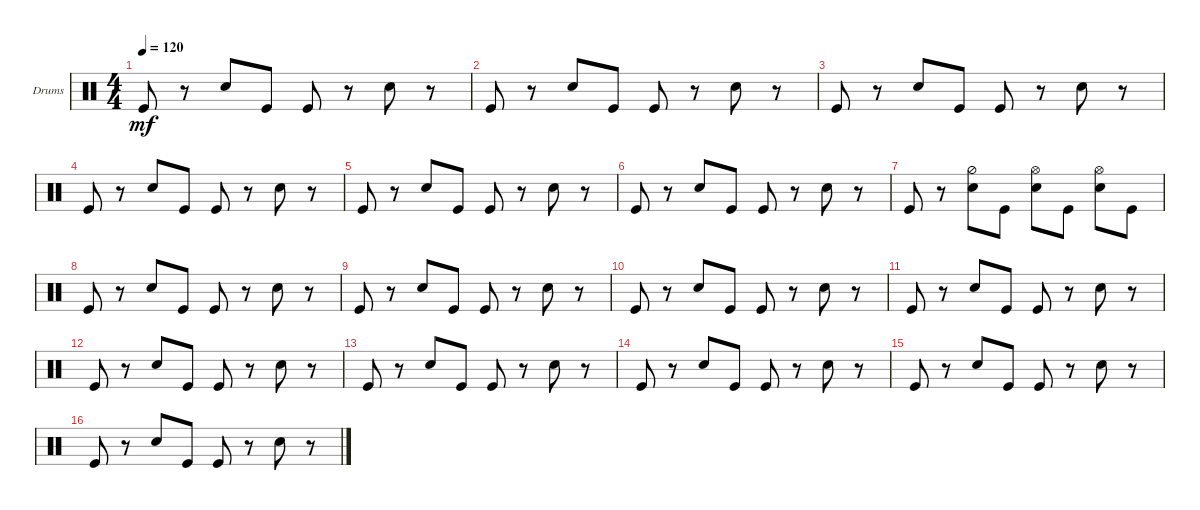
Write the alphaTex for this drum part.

\defaultSystemsLayout 4
\bracketExtendMode groupsimilarinstruments
\firstSystemTrackNameOrientation horizontal
\otherSystemsTrackNameOrientation horizontal
\track ("Drumkit" "Drums") {instrument percussion}
\staff {score}
\articulation defaults
\ts (4 4)
\tempo 120
\clef neutral
\ks c "Kick (hit)".8{dy mf}
r.8 "Snare (hit) 2".8 "Kick (hit)".8 "Kick (hit)".8 r.8 "Snare (hit) 2".8 r.8 |
"Kick (hit)".8 r.8 "Snare (hit) 2".8 "Kick (hit)".8 "Kick (hit)".8 r.8 "Snare (hit) 2".8 r.8 |
"Kick (hit)".8 r.8 "Snare (hit) 2".8 "Kick (hit)".8 "Kick (hit)".8 r.8 "Snare (hit) 2".8 r.8 |
"Kick (hit)".8 r.8 "Snare (hit) 2".8 "Kick (hit)".8 "Kick (hit)".8 r.8 "Snare (hit) 2".8 r.8 |
"Kick (hit)".8 r.8 "Snare (hit) 2".8 "Kick (hit)".8 "Kick (hit)".8 r.8 "Snare (hit) 2".8 r.8 |
"Kick (hit)".8 r.8 "Snare (hit) 2".8 "Kick (hit)".8 "Kick (hit)".8 r.8 "Snare (hit) 2".8 r.8 |
"Kick (hit)".8 r.8 ("Snare (hit) 2" "Hi-Hat (half)").8 "Kick (hit)".8 ("Snare (hit) 2" "Hi-Hat (open)").8 "Kick (hit)".8 ("Snare (hit) 2" "Hi-Hat (open)").8 "Kick (hit)".8 |
"Kick (hit)".8 r.8 "Snare (hit) 2".8 "Kick (hit)".8 "Kick (hit)".8 r.8 "Snare (hit) 2".8 r.8 |
"Kick (hit)".8 r.8 "Snare (hit) 2".8 "Kick (hit)".8 "Kick (hit)".8 r.8 "Snare (hit) 2".8 r.8 |
"Kick (hit)".8 r.8 "Snare (hit) 2".8 "Kick (hit)".8 "Kick (hit)".8 r.8 "Snare (hit) 2".8 r.8 |
"Kick (hit)".8 r.8 "Snare (hit) 2".8 "Kick (hit)".8 "Kick (hit)".8 r.8 "Snare (hit) 2".8 r.8 |
"Kick (hit)".8 r.8 "Snare (hit) 2".8 "Kick (hit)".8 "Kick (hit)".8 r.8 "Snare (hit) 2".8 r.8 |
"Kick (hit)".8 r.8 "Snare (hit) 2".8 "Kick (hit)".8 "Kick (hit)".8 r.8 "Snare (hit) 2".8 r.8 |
"Kick (hit)".8 r.8 "Snare (hit) 2".8 "Kick (hit)".8 "Kick (hit)".8 r.8 "Snare (hit) 2".8 r.8 |
"Kick (hit)".8 r.8 "Snare (hit) 2".8 "Kick (hit)".8 "Kick (hit)".8 r.8 "Snare (hit) 2".8 r.8 |
"Kick (hit)".8 r.8 "Snare (hit) 2".8 "Kick (hit)".8 "Kick (hit)".8 r.8 "Snare (hit) 2".8 r.8
